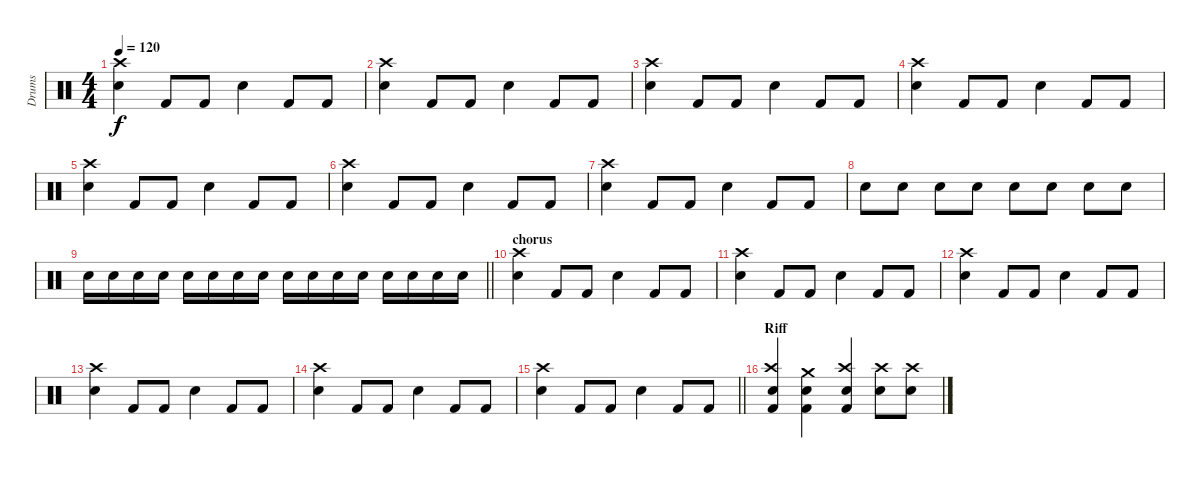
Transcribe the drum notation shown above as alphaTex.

\track ("Drums" "Drums") {instrument percussion}
\staff {score}
\articulation defaults
\ts (4 4)
\tempo 120
\clef neutral
\ks c
("Electric Snare (hit)" "Crash high (hit)").4{dy f} "Kick (hit) 2".8 "Kick (hit) 2".8 "Electric Snare (hit)".4 "Kick (hit) 2".8 "Kick (hit) 2".8 |
("Electric Snare (hit)" "Crash high (hit)").4 "Kick (hit) 2".8 "Kick (hit) 2".8 "Electric Snare (hit)".4 "Kick (hit) 2".8 "Kick (hit) 2".8 |
("Electric Snare (hit)" "Crash high (hit)").4 "Kick (hit) 2".8 "Kick (hit) 2".8 "Electric Snare (hit)".4 "Kick (hit) 2".8 "Kick (hit) 2".8 |
("Electric Snare (hit)" "Crash high (hit)").4 "Kick (hit) 2".8 "Kick (hit) 2".8 "Electric Snare (hit)".4 "Kick (hit) 2".8 "Kick (hit) 2".8 |
("Electric Snare (hit)" "Crash high (hit)").4 "Kick (hit) 2".8 "Kick (hit) 2".8 "Electric Snare (hit)".4 "Kick (hit) 2".8 "Kick (hit) 2".8 |
("Electric Snare (hit)" "Crash high (hit)").4 "Kick (hit) 2".8 "Kick (hit) 2".8 "Electric Snare (hit)".4 "Kick (hit) 2".8 "Kick (hit) 2".8 |
("Electric Snare (hit)" "Crash high (hit)").4 "Kick (hit) 2".8 "Kick (hit) 2".8 "Electric Snare (hit)".4 "Kick (hit) 2".8 "Kick (hit) 2".8 |
"Electric Snare (hit)".8 "Electric Snare (hit)".8 "Electric Snare (hit)".8 "Electric Snare (hit)".8 "Electric Snare (hit)".8 "Electric Snare (hit)".8 "Electric Snare (hit)".8 "Electric Snare (hit)".8 |
\barLineRight lightlight "Electric Snare (hit)".16 "Electric Snare (hit)".16 "Electric Snare (hit)".16 "Electric Snare (hit)".16 "Electric Snare (hit)".16 "Electric Snare (hit)".16 "Electric Snare (hit)".16 "Electric Snare (hit)".16 "Electric Snare (hit)".16 "Electric Snare (hit)".16 "Electric Snare (hit)".16 "Electric Snare (hit)".16 "Electric Snare (hit)".16 "Electric Snare (hit)".16 "Electric Snare (hit)".16 "Electric Snare (hit)".16
|
\section ("" "chorus")
("Electric Snare (hit)" "Crash high (hit)").4 "Kick (hit) 2".8 "Kick (hit) 2".8 "Electric Snare (hit)".4 "Kick (hit) 2".8 "Kick (hit) 2".8 |
("Electric Snare (hit)" "Crash high (hit)").4 "Kick (hit) 2".8 "Kick (hit) 2".8 "Electric Snare (hit)".4 "Kick (hit) 2".8 "Kick (hit) 2".8 |
("Electric Snare (hit)" "Crash high (hit)").4 "Kick (hit) 2".8 "Kick (hit) 2".8 "Electric Snare (hit)".4 "Kick (hit) 2".8 "Kick (hit) 2".8 |
("Electric Snare (hit)" "Crash high (hit)").4 "Kick (hit) 2".8 "Kick (hit) 2".8 "Electric Snare (hit)".4 "Kick (hit) 2".8 "Kick (hit) 2".8 |
("Electric Snare (hit)" "Crash high (hit)").4 "Kick (hit) 2".8 "Kick (hit) 2".8 "Electric Snare (hit)".4 "Kick (hit) 2".8 "Kick (hit) 2".8 |
\barLineRight lightlight
("Electric Snare (hit)" "Crash high (hit)").4 "Kick (hit) 2".8 "Kick (hit) 2".8 "Electric Snare (hit)".4 "Kick (hit) 2".8 "Kick (hit) 2".8 |
\section ("" "Riff")
("Electric Snare (hit)" "Kick (hit) 2" "Crash high (hit)").4 ("Electric Snare (hit)" "Kick (hit) 2" "Crash medium (hit)").4 ("Electric Snare (hit)" "Kick (hit) 2" "Crash high (hit)").4 ("Electric Snare (hit)" "Crash high (hit)").8 ("Electric Snare (hit)" "Crash high (hit)").8
